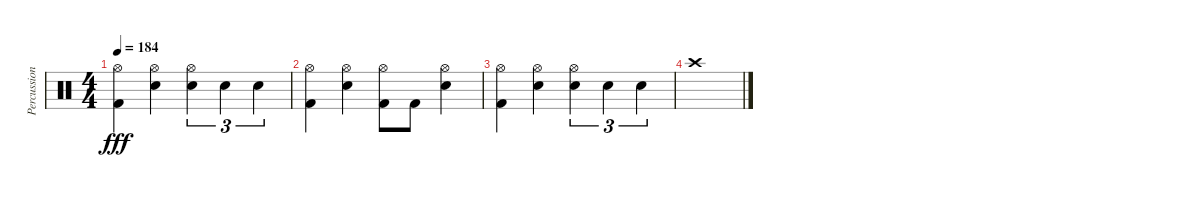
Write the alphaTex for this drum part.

\track ("Percussion" "Percussion") {instrument percussion}
\staff {score}
\articulation defaults
\ts (4 4)
\tempo 184
\clef neutral
\ks c
("Hi-Hat (open)" "Kick (hit) 2").4{dy fff} ("Hi-Hat (open)" "Snare (hit) 2").4 ("Hi-Hat (open)" "Snare (hit) 2").4{tu (3 2)} "Snare (hit) 2".4{tu (3 2)} "Snare (hit) 2".4{tu (3 2)} |
("Hi-Hat (open)" "Kick (hit) 2").4 ("Hi-Hat (open)" "Snare (hit) 2").4 ("Hi-Hat (open)" "Kick (hit) 2").8 "Kick (hit) 2".8 ("Hi-Hat (open)" "Snare (hit) 2").4 |
("Hi-Hat (open)" "Kick (hit) 2").4 ("Hi-Hat (open)" "Snare (hit) 2").4 ("Hi-Hat (open)" "Snare (hit) 2").4{tu (3 2)} "Snare (hit) 2".4{tu (3 2)} "Snare (hit) 2".4{tu (3 2)} |
"Crash high (hit)".1
